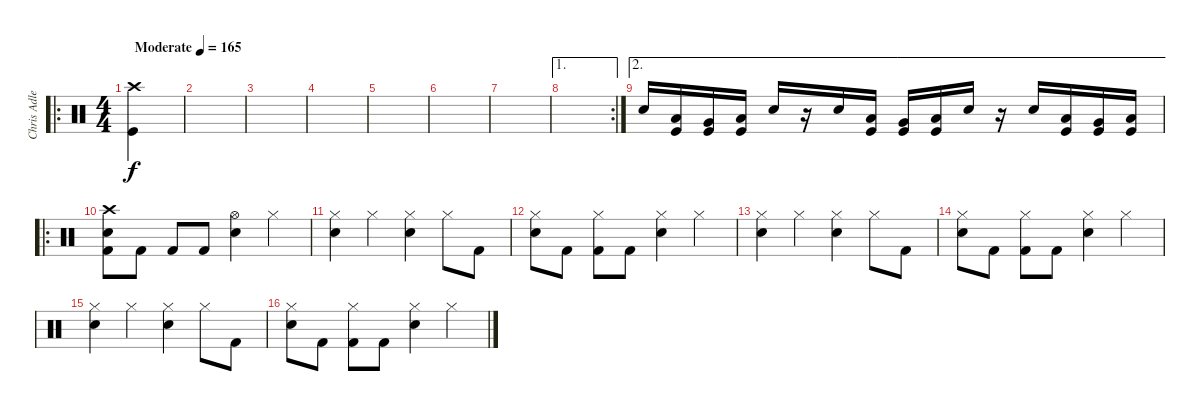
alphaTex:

\track ("Chris Adler" "Chris Adle") {instrument percussion}
\staff {score}
\articulation defaults
\ro
\ts (4 4)
\tempo (165 "Moderate")
\clef neutral
\ks c
("Crash high (hit)" "Kick (hit)").4{dy f} |
|
|
|
|
|
|
\ae 1
\rc 2
|
\ae 2 "Electric Snare (hit)".16
("Low Tom (hit)" "Kick (hit)").16 ("Very Low Tom (hit)" "Kick (hit)").16 ("Low Floor Tom (hit)" "Kick (hit)").16 "Electric Snare (hit)".16 r.16 "Electric Snare (hit)".16 ("Low Tom (hit)" "Kick (hit)").16 ("Very Low Tom (hit)" "Kick (hit)").16 ("Low Floor Tom (hit)" "Kick (hit)").16 "Electric Snare (hit)".16 r.16 "Electric Snare (hit)".16 ("Low Tom (hit)" "Kick (hit)").16 ("Very Low Tom (hit)" "Kick (hit)").16 ("Low Floor Tom (hit)" "Kick (hit)").16 |
\ro
("Crash high (hit)" "Electric Snare (hit)" "Kick (hit) 2").8 "Kick (hit) 2".8 "Kick (hit) 2".8 "Kick (hit) 2".8 ("Hi-Hat (open)" "Electric Snare (hit)").4 "Hi-Hat (closed)".4 |
("Hi-Hat (closed)" "Electric Snare (hit)").4 "Hi-Hat (closed)".4 ("Hi-Hat (closed)" "Electric Snare (hit)").4 "Hi-Hat (closed)".8 "Kick (hit) 2".8 |
("Hi-Hat (closed)" "Electric Snare (hit)").8 "Kick (hit) 2".8 ("Hi-Hat (closed)" "Kick (hit) 2").8 "Kick (hit) 2".8 ("Hi-Hat (closed)" "Electric Snare (hit)").4 "Hi-Hat (closed)".4 |
("Hi-Hat (closed)" "Electric Snare (hit)").4 "Hi-Hat (closed)".4 ("Hi-Hat (closed)" "Electric Snare (hit)").4 "Hi-Hat (closed)".8 "Kick (hit) 2".8 |
("Hi-Hat (closed)" "Electric Snare (hit)").8 "Kick (hit) 2".8 ("Hi-Hat (closed)" "Kick (hit) 2").8 "Kick (hit) 2".8 ("Hi-Hat (closed)" "Electric Snare (hit)").4 "Hi-Hat (closed)".4 |
("Hi-Hat (closed)" "Electric Snare (hit)").4 "Hi-Hat (closed)".4 ("Hi-Hat (closed)" "Electric Snare (hit)").4 "Hi-Hat (closed)".8 "Kick (hit) 2".8 |
("Hi-Hat (closed)" "Electric Snare (hit)").8 "Kick (hit) 2".8 ("Hi-Hat (closed)" "Kick (hit) 2").8 "Kick (hit) 2".8 ("Hi-Hat (closed)" "Electric Snare (hit)").4 "Hi-Hat (closed)".4
